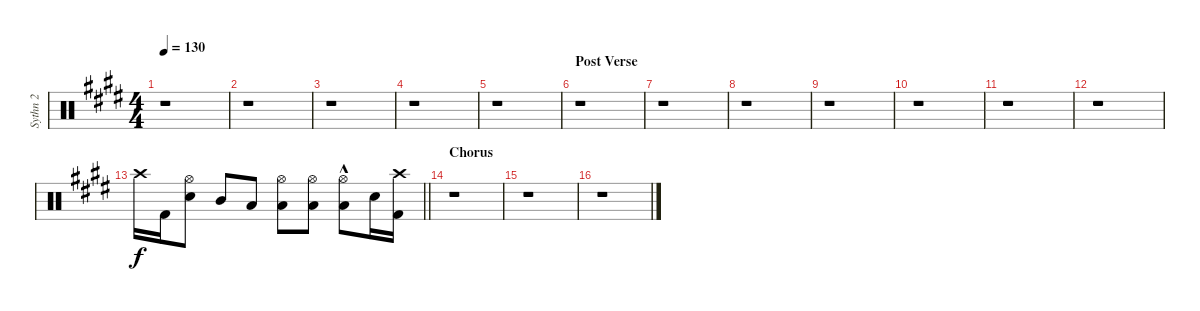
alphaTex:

\track ("Sythn 2" "Sythn 2") {instrument percussion}
\staff {score}
\articulation defaults
\ts (4 4)
\tempo 130
\clef neutral
\ks e
r.1{dy f} |
r.1 |
r.1 |
r.1 |
r.1 |
\section ("" "Post Verse")
r.1 |
r.1 |
r.1 |
r.1 |
r.1 |
r.1 |
r.1 |
\barLineRight lightlight "Crash high (hit)".16 "Kick (hit) 2".16
("Hi-Hat (open)" "Snare (hit) 2").8 "Mid Tom (hit)".8 "Low Tom (hit)".8 ("Hi-Hat (open)" "Low Tom (hit)").8 ("Hi-Hat (open)" "Low Tom (hit)").8 ("Hi-Hat (open)" "Low Tom (hit)"{hac}).8 "Snare (hit) 2".16 ("Crash high (hit)" "Kick (hit) 2").16 |
\section ("" "Chorus")
r.1 |
r.1 |
r.1
